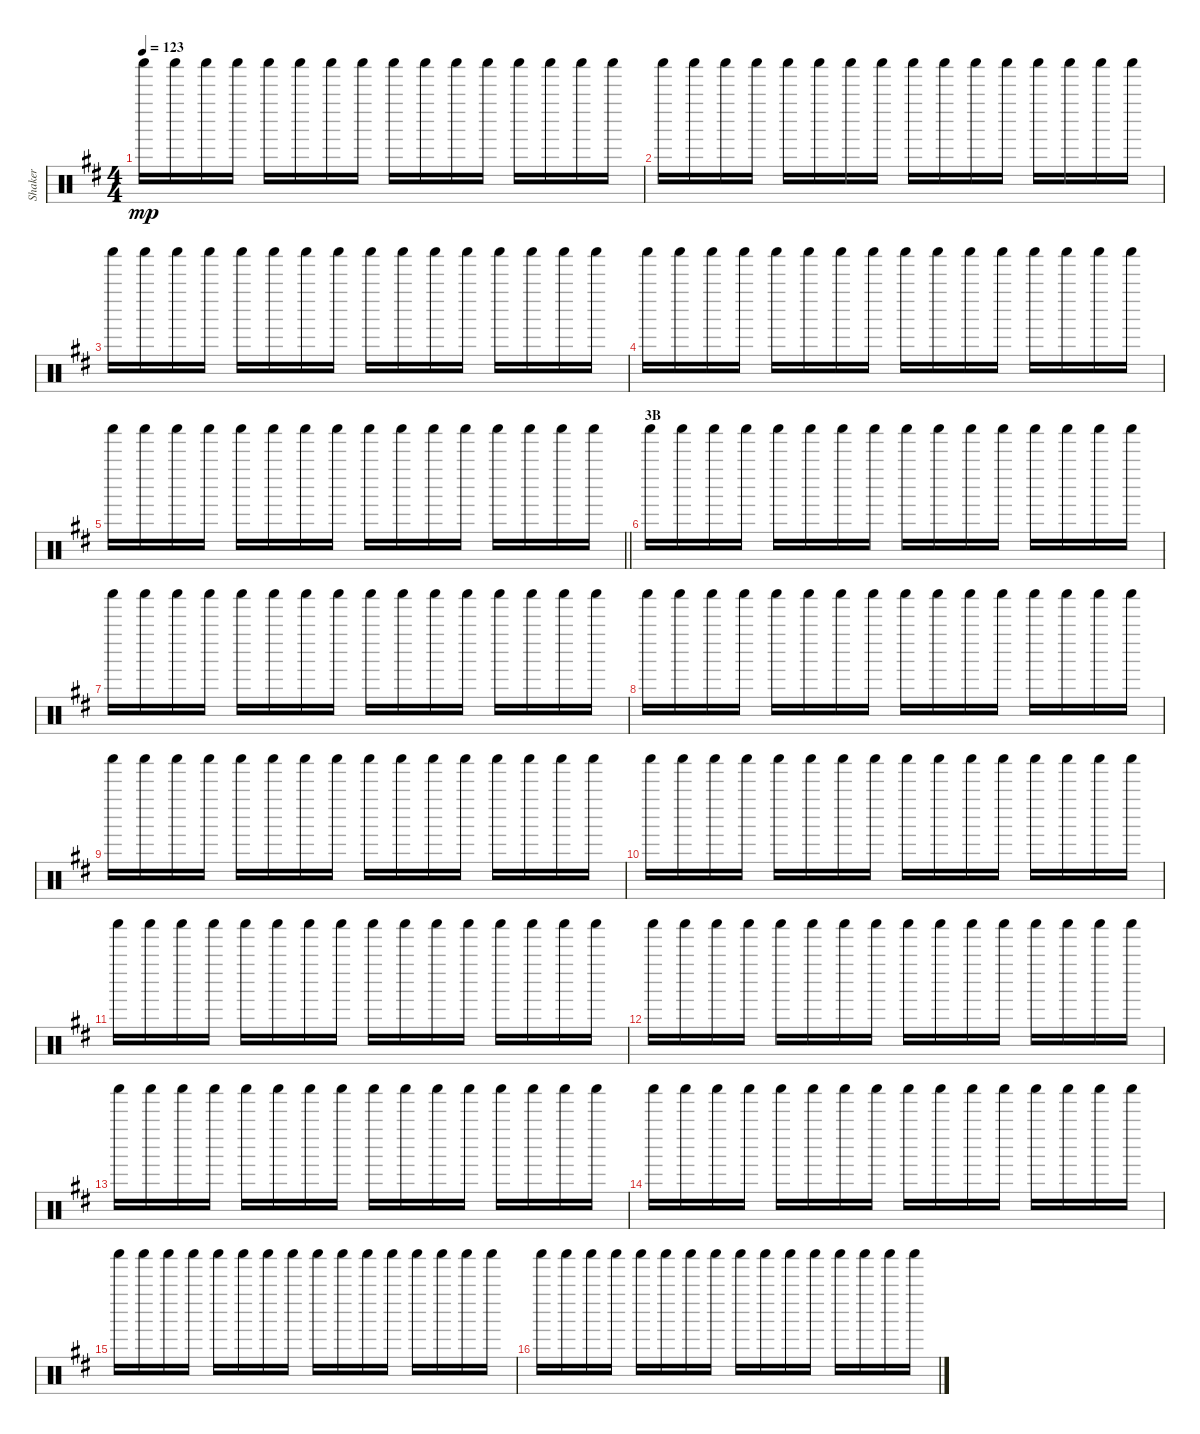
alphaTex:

\track ("Shaker" "Shaker") {instrument percussion}
\staff {score}
\articulation defaults
\ts (4 4)
\tempo 123
\clef neutral
\ks d "Shaker (hit)".16{dy mp} "Shaker (hit)".16 "Shaker (hit)".16 "Shaker (hit)".16 "Shaker (hit)".16 "Shaker (hit)".16 "Shaker (hit)".16 "Shaker (hit)".16 "Shaker (hit)".16 "Shaker (hit)".16 "Shaker (hit)".16 "Shaker (hit)".16 "Shaker (hit)".16 "Shaker (hit)".16 "Shaker (hit)".16 "Shaker (hit)".16
|
"Shaker (hit)".16 "Shaker (hit)".16 "Shaker (hit)".16 "Shaker (hit)".16 "Shaker (hit)".16 "Shaker (hit)".16 "Shaker (hit)".16 "Shaker (hit)".16 "Shaker (hit)".16 "Shaker (hit)".16 "Shaker (hit)".16 "Shaker (hit)".16 "Shaker (hit)".16 "Shaker (hit)".16 "Shaker (hit)".16 "Shaker (hit)".16 |
"Shaker (hit)".16 "Shaker (hit)".16 "Shaker (hit)".16 "Shaker (hit)".16 "Shaker (hit)".16 "Shaker (hit)".16 "Shaker (hit)".16 "Shaker (hit)".16 "Shaker (hit)".16 "Shaker (hit)".16 "Shaker (hit)".16 "Shaker (hit)".16 "Shaker (hit)".16 "Shaker (hit)".16 "Shaker (hit)".16 "Shaker (hit)".16 |
"Shaker (hit)".16 "Shaker (hit)".16 "Shaker (hit)".16 "Shaker (hit)".16 "Shaker (hit)".16 "Shaker (hit)".16 "Shaker (hit)".16 "Shaker (hit)".16 "Shaker (hit)".16 "Shaker (hit)".16 "Shaker (hit)".16 "Shaker (hit)".16 "Shaker (hit)".16 "Shaker (hit)".16 "Shaker (hit)".16 "Shaker (hit)".16 |
\barLineRight lightlight "Shaker (hit)".16 "Shaker (hit)".16 "Shaker (hit)".16 "Shaker (hit)".16 "Shaker (hit)".16 "Shaker (hit)".16 "Shaker (hit)".16 "Shaker (hit)".16 "Shaker (hit)".16 "Shaker (hit)".16 "Shaker (hit)".16 "Shaker (hit)".16 "Shaker (hit)".16 "Shaker (hit)".16 "Shaker (hit)".16 "Shaker (hit)".16
|
\section ("" "3B")
"Shaker (hit)".16 "Shaker (hit)".16 "Shaker (hit)".16 "Shaker (hit)".16 "Shaker (hit)".16 "Shaker (hit)".16 "Shaker (hit)".16 "Shaker (hit)".16 "Shaker (hit)".16 "Shaker (hit)".16 "Shaker (hit)".16 "Shaker (hit)".16 "Shaker (hit)".16 "Shaker (hit)".16 "Shaker (hit)".16 "Shaker (hit)".16 |
"Shaker (hit)".16 "Shaker (hit)".16 "Shaker (hit)".16 "Shaker (hit)".16 "Shaker (hit)".16 "Shaker (hit)".16 "Shaker (hit)".16 "Shaker (hit)".16 "Shaker (hit)".16 "Shaker (hit)".16 "Shaker (hit)".16 "Shaker (hit)".16 "Shaker (hit)".16 "Shaker (hit)".16 "Shaker (hit)".16 "Shaker (hit)".16 |
"Shaker (hit)".16 "Shaker (hit)".16 "Shaker (hit)".16 "Shaker (hit)".16 "Shaker (hit)".16 "Shaker (hit)".16 "Shaker (hit)".16 "Shaker (hit)".16 "Shaker (hit)".16 "Shaker (hit)".16 "Shaker (hit)".16 "Shaker (hit)".16 "Shaker (hit)".16 "Shaker (hit)".16 "Shaker (hit)".16 "Shaker (hit)".16 |
"Shaker (hit)".16 "Shaker (hit)".16 "Shaker (hit)".16 "Shaker (hit)".16 "Shaker (hit)".16 "Shaker (hit)".16 "Shaker (hit)".16 "Shaker (hit)".16 "Shaker (hit)".16 "Shaker (hit)".16 "Shaker (hit)".16 "Shaker (hit)".16 "Shaker (hit)".16 "Shaker (hit)".16 "Shaker (hit)".16 "Shaker (hit)".16 |
"Shaker (hit)".16 "Shaker (hit)".16 "Shaker (hit)".16 "Shaker (hit)".16 "Shaker (hit)".16 "Shaker (hit)".16 "Shaker (hit)".16 "Shaker (hit)".16 "Shaker (hit)".16 "Shaker (hit)".16 "Shaker (hit)".16 "Shaker (hit)".16 "Shaker (hit)".16 "Shaker (hit)".16 "Shaker (hit)".16 "Shaker (hit)".16 |
"Shaker (hit)".16 "Shaker (hit)".16 "Shaker (hit)".16 "Shaker (hit)".16 "Shaker (hit)".16 "Shaker (hit)".16 "Shaker (hit)".16 "Shaker (hit)".16 "Shaker (hit)".16 "Shaker (hit)".16 "Shaker (hit)".16 "Shaker (hit)".16 "Shaker (hit)".16 "Shaker (hit)".16 "Shaker (hit)".16 "Shaker (hit)".16 |
"Shaker (hit)".16 "Shaker (hit)".16 "Shaker (hit)".16 "Shaker (hit)".16 "Shaker (hit)".16 "Shaker (hit)".16 "Shaker (hit)".16 "Shaker (hit)".16 "Shaker (hit)".16 "Shaker (hit)".16 "Shaker (hit)".16 "Shaker (hit)".16 "Shaker (hit)".16 "Shaker (hit)".16 "Shaker (hit)".16 "Shaker (hit)".16 |
"Shaker (hit)".16 "Shaker (hit)".16 "Shaker (hit)".16 "Shaker (hit)".16 "Shaker (hit)".16 "Shaker (hit)".16 "Shaker (hit)".16 "Shaker (hit)".16 "Shaker (hit)".16 "Shaker (hit)".16 "Shaker (hit)".16 "Shaker (hit)".16 "Shaker (hit)".16 "Shaker (hit)".16 "Shaker (hit)".16 "Shaker (hit)".16 |
"Shaker (hit)".16 "Shaker (hit)".16 "Shaker (hit)".16 "Shaker (hit)".16 "Shaker (hit)".16 "Shaker (hit)".16 "Shaker (hit)".16 "Shaker (hit)".16 "Shaker (hit)".16 "Shaker (hit)".16 "Shaker (hit)".16 "Shaker (hit)".16 "Shaker (hit)".16 "Shaker (hit)".16 "Shaker (hit)".16 "Shaker (hit)".16 |
"Shaker (hit)".16 "Shaker (hit)".16 "Shaker (hit)".16 "Shaker (hit)".16 "Shaker (hit)".16 "Shaker (hit)".16 "Shaker (hit)".16 "Shaker (hit)".16 "Shaker (hit)".16 "Shaker (hit)".16 "Shaker (hit)".16 "Shaker (hit)".16 "Shaker (hit)".16 "Shaker (hit)".16 "Shaker (hit)".16 "Shaker (hit)".16 |
"Shaker (hit)".16 "Shaker (hit)".16 "Shaker (hit)".16 "Shaker (hit)".16 "Shaker (hit)".16 "Shaker (hit)".16 "Shaker (hit)".16 "Shaker (hit)".16 "Shaker (hit)".16 "Shaker (hit)".16 "Shaker (hit)".16 "Shaker (hit)".16 "Shaker (hit)".16 "Shaker (hit)".16 "Shaker (hit)".16 "Shaker (hit)".16
